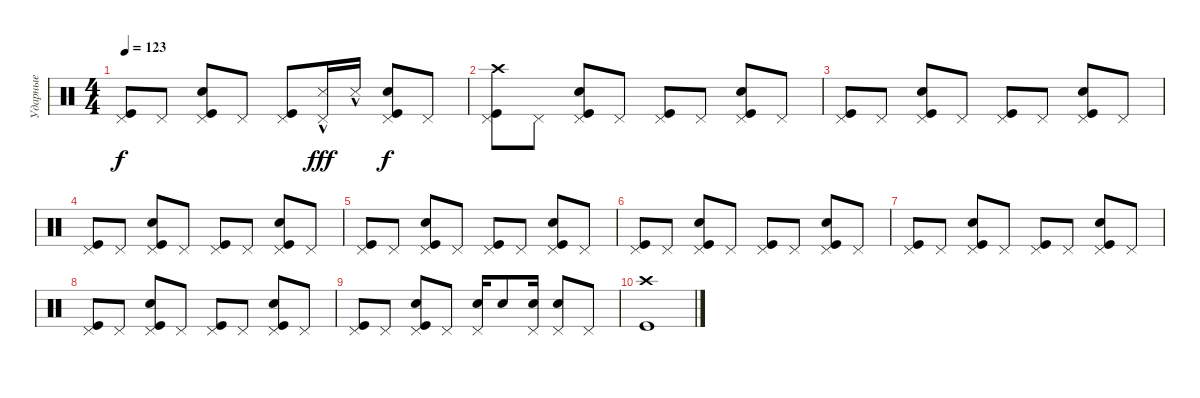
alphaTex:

\track ("Ударные" "Ударные") {instrument percussion}
\staff {score}
\articulation defaults
\ts (4 4)
\tempo 123
\clef neutral
\ks c
("Pedal Hi-Hat (hit)" "Kick (hit)").8{dy f} "Pedal Hi-Hat (hit)".8 ("Pedal Hi-Hat (hit)" "Kick (hit)" "Snare (hit) 2").8 "Pedal Hi-Hat (hit)".8 ("Pedal Hi-Hat (hit)" "Kick (hit)").8 ("Snare (side stick) 3"{hac} "Pedal Hi-Hat (hit)").16{dy fff} "Snare (side stick) 3"{hac}.16 ("Snare (hit) 2" "Kick (hit)" "Pedal Hi-Hat (hit)").8{dy f} "Pedal Hi-Hat (hit)".8 |
("Pedal Hi-Hat (hit)" "Kick (hit)" "Crash high (hit)").8 "Pedal Hi-Hat (hit)".8 ("Pedal Hi-Hat (hit)" "Kick (hit)" "Snare (hit) 2").8 "Pedal Hi-Hat (hit)".8 ("Pedal Hi-Hat (hit)" "Kick (hit)").8 "Pedal Hi-Hat (hit)".8 ("Pedal Hi-Hat (hit)" "Kick (hit)" "Snare (hit) 2").8 "Pedal Hi-Hat (hit)".8 |
("Pedal Hi-Hat (hit)" "Kick (hit)").8 "Pedal Hi-Hat (hit)".8 ("Pedal Hi-Hat (hit)" "Kick (hit)" "Snare (hit) 2").8 "Pedal Hi-Hat (hit)".8 ("Pedal Hi-Hat (hit)" "Kick (hit)").8 "Pedal Hi-Hat (hit)".8 ("Pedal Hi-Hat (hit)" "Kick (hit)" "Snare (hit) 2").8 "Pedal Hi-Hat (hit)".8 |
("Pedal Hi-Hat (hit)" "Kick (hit)").8 "Pedal Hi-Hat (hit)".8 ("Pedal Hi-Hat (hit)" "Kick (hit)" "Snare (hit) 2").8 "Pedal Hi-Hat (hit)".8 ("Pedal Hi-Hat (hit)" "Kick (hit)").8 "Pedal Hi-Hat (hit)".8 ("Pedal Hi-Hat (hit)" "Kick (hit)" "Snare (hit) 2").8 "Pedal Hi-Hat (hit)".8 |
("Pedal Hi-Hat (hit)" "Kick (hit)").8 "Pedal Hi-Hat (hit)".8 ("Pedal Hi-Hat (hit)" "Kick (hit)" "Snare (hit) 2").8 "Pedal Hi-Hat (hit)".8 ("Pedal Hi-Hat (hit)" "Kick (hit)").8 "Pedal Hi-Hat (hit)".8 ("Pedal Hi-Hat (hit)" "Kick (hit)" "Snare (hit) 2").8 "Pedal Hi-Hat (hit)".8 |
("Pedal Hi-Hat (hit)" "Kick (hit)").8 "Pedal Hi-Hat (hit)".8 ("Pedal Hi-Hat (hit)" "Kick (hit)" "Snare (hit) 2").8 "Pedal Hi-Hat (hit)".8 ("Pedal Hi-Hat (hit)" "Kick (hit)").8 "Pedal Hi-Hat (hit)".8 ("Pedal Hi-Hat (hit)" "Kick (hit)" "Snare (hit) 2").8 "Pedal Hi-Hat (hit)".8 |
("Pedal Hi-Hat (hit)" "Kick (hit)").8 "Pedal Hi-Hat (hit)".8 ("Pedal Hi-Hat (hit)" "Kick (hit)" "Snare (hit) 2").8 "Pedal Hi-Hat (hit)".8 ("Pedal Hi-Hat (hit)" "Kick (hit)").8 "Pedal Hi-Hat (hit)".8 ("Pedal Hi-Hat (hit)" "Kick (hit)" "Snare (hit) 2").8 "Pedal Hi-Hat (hit)".8 |
("Pedal Hi-Hat (hit)" "Kick (hit)").8 "Pedal Hi-Hat (hit)".8 ("Pedal Hi-Hat (hit)" "Kick (hit)" "Snare (hit) 2").8 "Pedal Hi-Hat (hit)".8 ("Pedal Hi-Hat (hit)" "Kick (hit)").8 "Pedal Hi-Hat (hit)".8 ("Pedal Hi-Hat (hit)" "Kick (hit)" "Snare (hit) 2").8 "Pedal Hi-Hat (hit)".8 |
("Pedal Hi-Hat (hit)" "Kick (hit)").8 "Pedal Hi-Hat (hit)".8 ("Pedal Hi-Hat (hit)" "Kick (hit)" "Snare (hit) 2").8 "Pedal Hi-Hat (hit)".8 ("Pedal Hi-Hat (hit)" "Snare (hit) 2").16 "Snare (hit) 2".8 ("Snare (hit) 2" "Pedal Hi-Hat (hit)").16 ("Pedal Hi-Hat (hit)" "Snare (hit) 2").8 "Pedal Hi-Hat (hit)".8 |
("Crash high (hit)" "Kick (hit)").1
